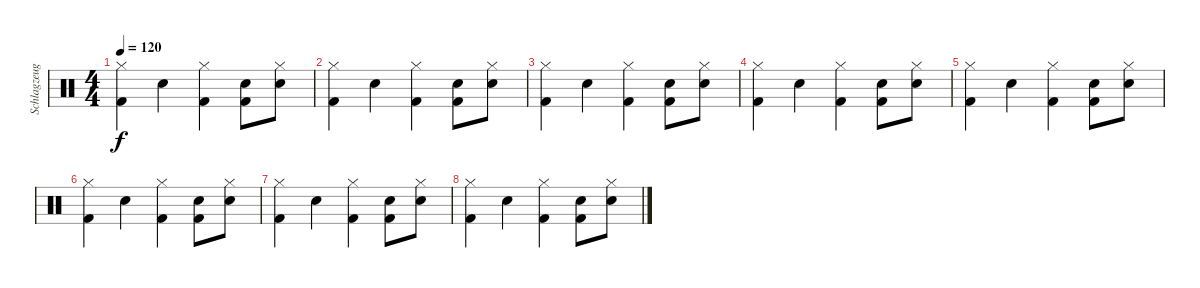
\track ("Schlagzeug" "Schlagzeug") {instrument percussion}
\staff {score}
\articulation defaults
\ts (4 4)
\tempo 120
\clef neutral
\ks c
("Hi-Hat (closed)" "Kick (hit) 2").4{dy f} "Electric Snare (hit)".4 ("Hi-Hat (closed)" "Kick (hit) 2").4 ("Electric Snare (hit)" "Kick (hit) 2").8 ("Electric Snare (hit)" "Hi-Hat (closed)").8 |
("Hi-Hat (closed)" "Kick (hit) 2").4 "Electric Snare (hit)".4 ("Hi-Hat (closed)" "Kick (hit) 2").4 ("Electric Snare (hit)" "Kick (hit) 2").8 ("Electric Snare (hit)" "Hi-Hat (closed)").8 |
("Hi-Hat (closed)" "Kick (hit) 2").4 "Electric Snare (hit)".4 ("Hi-Hat (closed)" "Kick (hit) 2").4 ("Electric Snare (hit)" "Kick (hit) 2").8 ("Electric Snare (hit)" "Hi-Hat (closed)").8 |
("Hi-Hat (closed)" "Kick (hit) 2").4 "Electric Snare (hit)".4 ("Hi-Hat (closed)" "Kick (hit) 2").4 ("Electric Snare (hit)" "Kick (hit) 2").8 ("Electric Snare (hit)" "Hi-Hat (closed)").8 |
("Hi-Hat (closed)" "Kick (hit) 2").4 "Electric Snare (hit)".4 ("Hi-Hat (closed)" "Kick (hit) 2").4 ("Electric Snare (hit)" "Kick (hit) 2").8 ("Electric Snare (hit)" "Hi-Hat (closed)").8 |
("Hi-Hat (closed)" "Kick (hit) 2").4 "Electric Snare (hit)".4 ("Hi-Hat (closed)" "Kick (hit) 2").4 ("Electric Snare (hit)" "Kick (hit) 2").8 ("Electric Snare (hit)" "Hi-Hat (closed)").8 |
("Hi-Hat (closed)" "Kick (hit) 2").4 "Electric Snare (hit)".4 ("Hi-Hat (closed)" "Kick (hit) 2").4 ("Electric Snare (hit)" "Kick (hit) 2").8 ("Electric Snare (hit)" "Hi-Hat (closed)").8 |
("Hi-Hat (closed)" "Kick (hit) 2").4 "Electric Snare (hit)".4 ("Hi-Hat (closed)" "Kick (hit) 2").4 ("Electric Snare (hit)" "Kick (hit) 2").8 ("Electric Snare (hit)" "Hi-Hat (closed)").8
